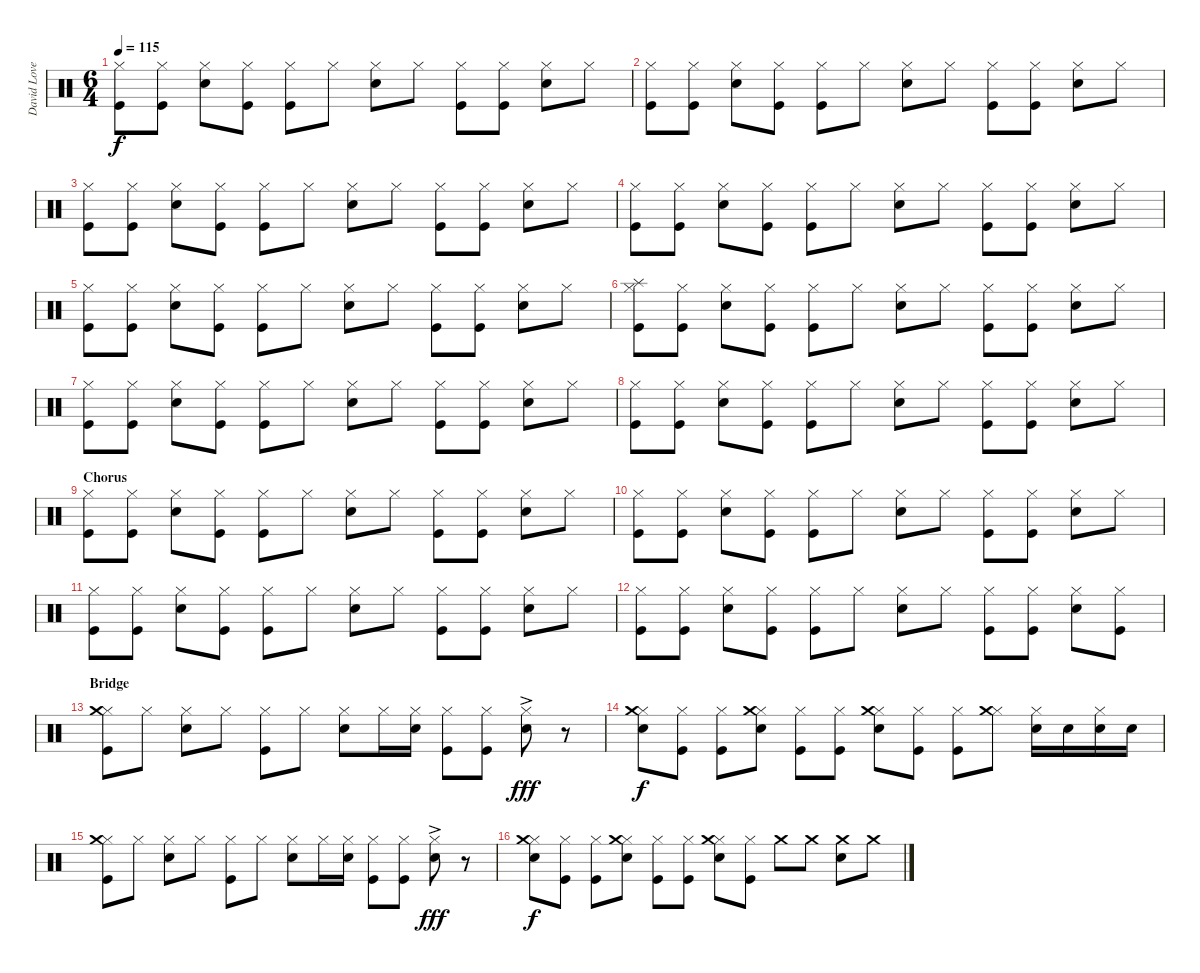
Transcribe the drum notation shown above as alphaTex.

\track ("David Lovering" "David Love") {instrument percussion}
\staff {score}
\articulation defaults
\ts (6 4)
\tempo 115
\clef neutral
\ks c
("Hi-Hat (closed)" "Kick (hit)").8{dy f} ("Hi-Hat (closed)" "Kick (hit)").8 ("Hi-Hat (closed)" "Snare (hit) 2").8 ("Hi-Hat (closed)" "Kick (hit)").8 ("Hi-Hat (closed)" "Kick (hit)").8 "Hi-Hat (closed)".8 ("Hi-Hat (closed)" "Snare (hit) 2").8 "Hi-Hat (closed)".8 ("Hi-Hat (closed)" "Kick (hit)").8 ("Hi-Hat (closed)" "Kick (hit)").8 ("Hi-Hat (closed)" "Snare (hit) 2").8 "Hi-Hat (closed)".8 |
("Hi-Hat (closed)" "Kick (hit)").8 ("Hi-Hat (closed)" "Kick (hit)").8 ("Hi-Hat (closed)" "Snare (hit) 2").8 ("Hi-Hat (closed)" "Kick (hit)").8 ("Hi-Hat (closed)" "Kick (hit)").8 "Hi-Hat (closed)".8 ("Hi-Hat (closed)" "Snare (hit) 2").8 "Hi-Hat (closed)".8 ("Hi-Hat (closed)" "Kick (hit)").8 ("Hi-Hat (closed)" "Kick (hit)").8 ("Hi-Hat (closed)" "Snare (hit) 2").8 "Hi-Hat (closed)".8 |
("Hi-Hat (closed)" "Kick (hit)").8 ("Hi-Hat (closed)" "Kick (hit)").8 ("Hi-Hat (closed)" "Snare (hit) 2").8 ("Hi-Hat (closed)" "Kick (hit)").8 ("Hi-Hat (closed)" "Kick (hit)").8 "Hi-Hat (closed)".8 ("Hi-Hat (closed)" "Snare (hit) 2").8 "Hi-Hat (closed)".8 ("Hi-Hat (closed)" "Kick (hit)").8 ("Hi-Hat (closed)" "Kick (hit)").8 ("Hi-Hat (closed)" "Snare (hit) 2").8 "Hi-Hat (closed)".8 |
("Hi-Hat (closed)" "Kick (hit)").8 ("Hi-Hat (closed)" "Kick (hit)").8 ("Hi-Hat (closed)" "Snare (hit) 2").8 ("Hi-Hat (closed)" "Kick (hit)").8 ("Hi-Hat (closed)" "Kick (hit)").8 "Hi-Hat (closed)".8 ("Hi-Hat (closed)" "Snare (hit) 2").8 "Hi-Hat (closed)".8 ("Hi-Hat (closed)" "Kick (hit)").8 ("Hi-Hat (closed)" "Kick (hit)").8 ("Hi-Hat (closed)" "Snare (hit) 2").8 "Hi-Hat (closed)".8 |
\section ("" "")
("Hi-Hat (closed)" "Kick (hit)").8 ("Hi-Hat (closed)" "Kick (hit)").8 ("Hi-Hat (closed)" "Snare (hit) 2").8 ("Hi-Hat (closed)" "Kick (hit)").8 ("Hi-Hat (closed)" "Kick (hit)").8 "Hi-Hat (closed)".8 ("Hi-Hat (closed)" "Snare (hit) 2").8 "Hi-Hat (closed)".8 ("Hi-Hat (closed)" "Kick (hit)").8 ("Hi-Hat (closed)" "Kick (hit)").8 ("Hi-Hat (closed)" "Snare (hit) 2").8 "Hi-Hat (closed)".8 |
("Hi-Hat (closed)" "Splash (hit)" "Kick (hit)").8 ("Hi-Hat (closed)" "Kick (hit)").8 ("Hi-Hat (closed)" "Snare (hit) 2").8 ("Hi-Hat (closed)" "Kick (hit)").8 ("Hi-Hat (closed)" "Kick (hit)").8 "Hi-Hat (closed)".8 ("Hi-Hat (closed)" "Snare (hit) 2").8 "Hi-Hat (closed)".8 ("Hi-Hat (closed)" "Kick (hit)").8 ("Hi-Hat (closed)" "Kick (hit)").8 ("Hi-Hat (closed)" "Snare (hit) 2").8 "Hi-Hat (closed)".8 |
("Hi-Hat (closed)" "Kick (hit)").8 ("Hi-Hat (closed)" "Kick (hit)").8 ("Hi-Hat (closed)" "Snare (hit) 2").8 ("Hi-Hat (closed)" "Kick (hit)").8 ("Hi-Hat (closed)" "Kick (hit)").8 "Hi-Hat (closed)".8 ("Hi-Hat (closed)" "Snare (hit) 2").8 "Hi-Hat (closed)".8 ("Hi-Hat (closed)" "Kick (hit)").8 ("Hi-Hat (closed)" "Kick (hit)").8 ("Hi-Hat (closed)" "Snare (hit) 2").8 "Hi-Hat (closed)".8 |
("Hi-Hat (closed)" "Kick (hit)").8 ("Hi-Hat (closed)" "Kick (hit)").8 ("Hi-Hat (closed)" "Snare (hit) 2").8 ("Hi-Hat (closed)" "Kick (hit)").8 ("Hi-Hat (closed)" "Kick (hit)").8 "Hi-Hat (closed)".8 ("Hi-Hat (closed)" "Snare (hit) 2").8 "Hi-Hat (closed)".8 ("Hi-Hat (closed)" "Kick (hit)").8 ("Hi-Hat (closed)" "Kick (hit)").8 ("Hi-Hat (closed)" "Snare (hit) 2").8 "Hi-Hat (closed)".8 |
\section ("" "Chorus")
("Hi-Hat (closed)" "Kick (hit)").8 ("Hi-Hat (closed)" "Kick (hit)").8 ("Hi-Hat (closed)" "Snare (hit) 2").8 ("Hi-Hat (closed)" "Kick (hit)").8 ("Hi-Hat (closed)" "Kick (hit)").8 "Hi-Hat (closed)".8 ("Hi-Hat (closed)" "Snare (hit) 2").8 "Hi-Hat (closed)".8 ("Hi-Hat (closed)" "Kick (hit)").8 ("Hi-Hat (closed)" "Kick (hit)").8 ("Hi-Hat (closed)" "Snare (hit) 2").8 "Hi-Hat (closed)".8 |
("Hi-Hat (closed)" "Kick (hit)").8 ("Hi-Hat (closed)" "Kick (hit)").8 ("Hi-Hat (closed)" "Snare (hit) 2").8 ("Hi-Hat (closed)" "Kick (hit)").8 ("Hi-Hat (closed)" "Kick (hit)").8 "Hi-Hat (closed)".8 ("Hi-Hat (closed)" "Snare (hit) 2").8 "Hi-Hat (closed)".8 ("Hi-Hat (closed)" "Kick (hit)").8 ("Hi-Hat (closed)" "Kick (hit)").8 ("Hi-Hat (closed)" "Snare (hit) 2").8 "Hi-Hat (closed)".8 |
("Hi-Hat (closed)" "Kick (hit)").8 ("Hi-Hat (closed)" "Kick (hit)").8 ("Hi-Hat (closed)" "Snare (hit) 2").8 ("Hi-Hat (closed)" "Kick (hit)").8 ("Hi-Hat (closed)" "Kick (hit)").8 "Hi-Hat (closed)".8 ("Hi-Hat (closed)" "Snare (hit) 2").8 "Hi-Hat (closed)".8 ("Hi-Hat (closed)" "Kick (hit)").8 ("Hi-Hat (closed)" "Kick (hit)").8 ("Hi-Hat (closed)" "Snare (hit) 2").8 "Hi-Hat (closed)".8 |
("Hi-Hat (closed)" "Kick (hit)").8 ("Hi-Hat (closed)" "Kick (hit)").8 ("Hi-Hat (closed)" "Snare (hit) 2").8 ("Hi-Hat (closed)" "Kick (hit)").8 ("Hi-Hat (closed)" "Kick (hit)").8 "Hi-Hat (closed)".8 ("Hi-Hat (closed)" "Snare (hit) 2").8 "Hi-Hat (closed)".8 ("Hi-Hat (closed)" "Kick (hit)").8 ("Hi-Hat (closed)" "Kick (hit)").8 ("Hi-Hat (closed)" "Snare (hit) 2").8 ("Hi-Hat (closed)" "Kick (hit)").8 |
\section ("" "Bridge")
("Hi-Hat (closed)" "Crash medium (hit)" "Kick (hit)").8 "Hi-Hat (closed)".8 ("Hi-Hat (closed)" "Snare (hit) 2").8 "Hi-Hat (closed)".8 ("Hi-Hat (closed)" "Kick (hit)").8 "Hi-Hat (closed)".8 ("Hi-Hat (closed)" "Snare (hit) 2").8 "Hi-Hat (closed)".16 ("Hi-Hat (closed)" "Snare (hit) 2").16 ("Hi-Hat (closed)" "Kick (hit)").8 ("Hi-Hat (closed)" "Kick (hit)").8 ("Hi-Hat (closed)"{ac} "Snare (hit) 2").8{dy fff} r.8 |
("Hi-Hat (closed)" "Crash medium (hit)" "Snare (hit) 2").8{dy f} ("Hi-Hat (closed)" "Kick (hit)").8 ("Hi-Hat (closed)" "Kick (hit)").8 ("Hi-Hat (closed)" "Crash medium (hit)" "Snare (hit) 2").8 ("Hi-Hat (closed)" "Kick (hit)").8 ("Hi-Hat (closed)" "Kick (hit)").8 ("Hi-Hat (closed)" "Crash medium (hit)" "Snare (hit) 2").8 ("Hi-Hat (closed)" "Kick (hit)").8 ("Hi-Hat (closed)" "Kick (hit)").8 ("Hi-Hat (closed)" "Crash medium (hit)").8 ("Hi-Hat (closed)" "Snare (hit) 2").16 "Snare (hit) 2".16 ("Hi-Hat (closed)" "Snare (hit) 2").16 "Snare (hit) 2".16 |
("Hi-Hat (closed)" "Crash medium (hit)" "Kick (hit)").8 "Hi-Hat (closed)".8 ("Hi-Hat (closed)" "Snare (hit) 2").8 "Hi-Hat (closed)".8 ("Hi-Hat (closed)" "Kick (hit)").8 "Hi-Hat (closed)".8 ("Hi-Hat (closed)" "Snare (hit) 2").8 "Hi-Hat (closed)".16 ("Hi-Hat (closed)" "Snare (hit) 2").16 ("Hi-Hat (closed)" "Kick (hit)").8 ("Hi-Hat (closed)" "Kick (hit)").8 ("Hi-Hat (closed)"{ac} "Snare (hit) 2").8{dy fff} r.8 |
("Hi-Hat (closed)" "Crash medium (hit)" "Snare (hit) 2").8{dy f} ("Hi-Hat (closed)" "Kick (hit)").8 ("Hi-Hat (closed)" "Kick (hit)").8 ("Hi-Hat (closed)" "Crash medium (hit)" "Snare (hit) 2").8 ("Hi-Hat (closed)" "Kick (hit)").8 ("Hi-Hat (closed)" "Kick (hit)").8 ("Hi-Hat (closed)" "Crash medium (hit)" "Snare (hit) 2").8 ("Hi-Hat (closed)" "Kick (hit)").8 "Crash medium (hit)".8 "Crash medium (hit)".8 ("Crash medium (hit)" "Snare (hit) 2").8 "Crash medium (hit)".8
